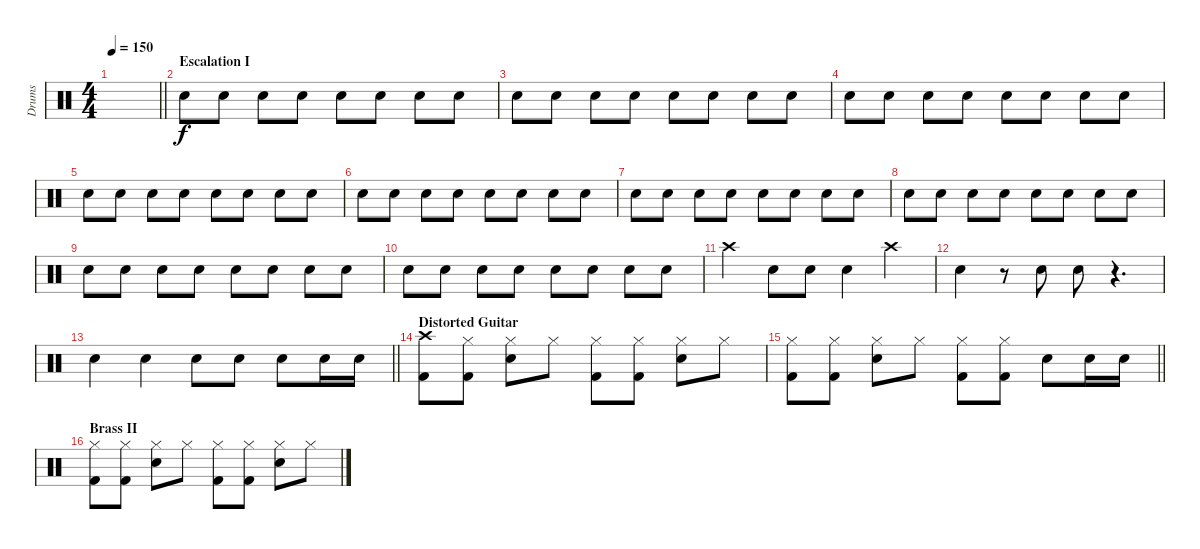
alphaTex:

\track ("Drums" "Drums") {instrument percussion}
\staff {score}
\articulation defaults
\ts (4 4)
\tempo 150
\clef neutral
\barLineRight lightlight
\ks c
|
\section ("" "Escalation I")
"Snare (hit) 2".8{volume 9} "Snare (hit) 2".8 "Snare (hit) 2".8 "Snare (hit) 2".8 "Snare (hit) 2".8 "Snare (hit) 2".8 "Snare (hit) 2".8 "Snare (hit) 2".8 |
"Snare (hit) 2".8 "Snare (hit) 2".8 "Snare (hit) 2".8 "Snare (hit) 2".8 "Snare (hit) 2".8 "Snare (hit) 2".8 "Snare (hit) 2".8 "Snare (hit) 2".8 |
"Snare (hit) 2".8 "Snare (hit) 2".8 "Snare (hit) 2".8 "Snare (hit) 2".8 "Snare (hit) 2".8 "Snare (hit) 2".8 "Snare (hit) 2".8 "Snare (hit) 2".8 |
"Snare (hit) 2".8 "Snare (hit) 2".8 "Snare (hit) 2".8 "Snare (hit) 2".8 "Snare (hit) 2".8 "Snare (hit) 2".8 "Snare (hit) 2".8 "Snare (hit) 2".8 |
"Snare (hit) 2".8 "Snare (hit) 2".8 "Snare (hit) 2".8 "Snare (hit) 2".8 "Snare (hit) 2".8 "Snare (hit) 2".8 "Snare (hit) 2".8 "Snare (hit) 2".8 |
"Snare (hit) 2".8 "Snare (hit) 2".8 "Snare (hit) 2".8 "Snare (hit) 2".8 "Snare (hit) 2".8 "Snare (hit) 2".8 "Snare (hit) 2".8 "Snare (hit) 2".8 |
"Snare (hit) 2".8 "Snare (hit) 2".8 "Snare (hit) 2".8 "Snare (hit) 2".8 "Snare (hit) 2".8 "Snare (hit) 2".8 "Snare (hit) 2".8 "Snare (hit) 2".8 |
"Snare (hit) 2".8 "Snare (hit) 2".8 "Snare (hit) 2".8 "Snare (hit) 2".8 "Snare (hit) 2".8 "Snare (hit) 2".8 "Snare (hit) 2".8 "Snare (hit) 2".8 |
"Snare (hit) 2".8 "Snare (hit) 2".8 "Snare (hit) 2".8 "Snare (hit) 2".8 "Snare (hit) 2".8 "Snare (hit) 2".8 "Snare (hit) 2".8 "Snare (hit) 2".8 |
"Crash high (hit)".4 "Snare (hit) 2".8 "Snare (hit) 2".8 "Snare (hit) 2".4 "Crash high (hit)".4 |
"Snare (hit) 2".4 r.8 "Snare (hit) 2".8 "Snare (hit) 2".8 r.4{d} |
\barLineRight lightlight "Snare (hit) 2".4 "Snare (hit) 2".4 "Snare (hit) 2".8 "Snare (hit) 2".8 "Snare (hit) 2".8 "Snare (hit) 2".16 "Snare (hit) 2".16
|
\section ("" "Distorted Guitar")
("Crash high (hit)" "Kick (hit) 2").8 ("Hi-Hat (closed)" "Kick (hit) 2").8 ("Hi-Hat (closed)" "Snare (hit) 2").8 "Hi-Hat (closed)".8 ("Hi-Hat (closed)" "Kick (hit) 2").8 ("Hi-Hat (closed)" "Kick (hit) 2").8 ("Hi-Hat (closed)" "Snare (hit) 2").8 "Hi-Hat (closed)".8 |
\barLineRight lightlight
("Hi-Hat (closed)" "Kick (hit) 2").8 ("Hi-Hat (closed)" "Kick (hit) 2").8 ("Hi-Hat (closed)" "Snare (hit) 2").8 "Hi-Hat (closed)".8 ("Hi-Hat (closed)" "Kick (hit) 2").8 ("Hi-Hat (closed)" "Kick (hit) 2").8 "Snare (hit) 2".8 "Snare (hit) 2".16 "Snare (hit) 2".16 |
\section ("" "Brass II")
("Hi-Hat (closed)" "Kick (hit) 2").8 ("Hi-Hat (closed)" "Kick (hit) 2").8 ("Hi-Hat (closed)" "Snare (hit) 2").8 "Hi-Hat (closed)".8 ("Hi-Hat (closed)" "Kick (hit) 2").8 ("Hi-Hat (closed)" "Kick (hit) 2").8 ("Hi-Hat (closed)" "Snare (hit) 2").8 "Hi-Hat (closed)".8
